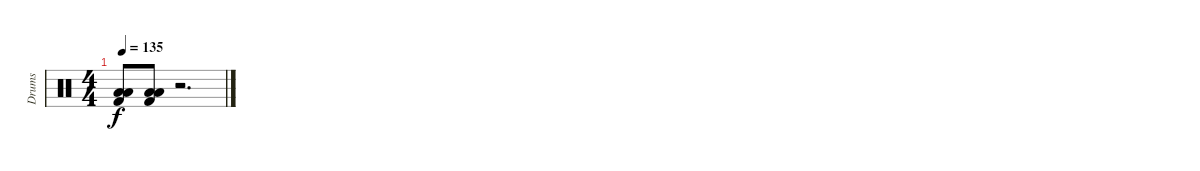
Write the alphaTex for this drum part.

\track ("Drums" "Drums") {instrument percussion}
\staff {score}
\articulation defaults
\ts (4 4)
\tempo 135
\clef neutral
\ks c
("Low Tom (hit)" "Low Floor Tom (hit)" "Kick (hit) 2").8{dy f} ("Low Tom (hit)" "Low Floor Tom (hit)" "Kick (hit) 2").8 r.2{d}
